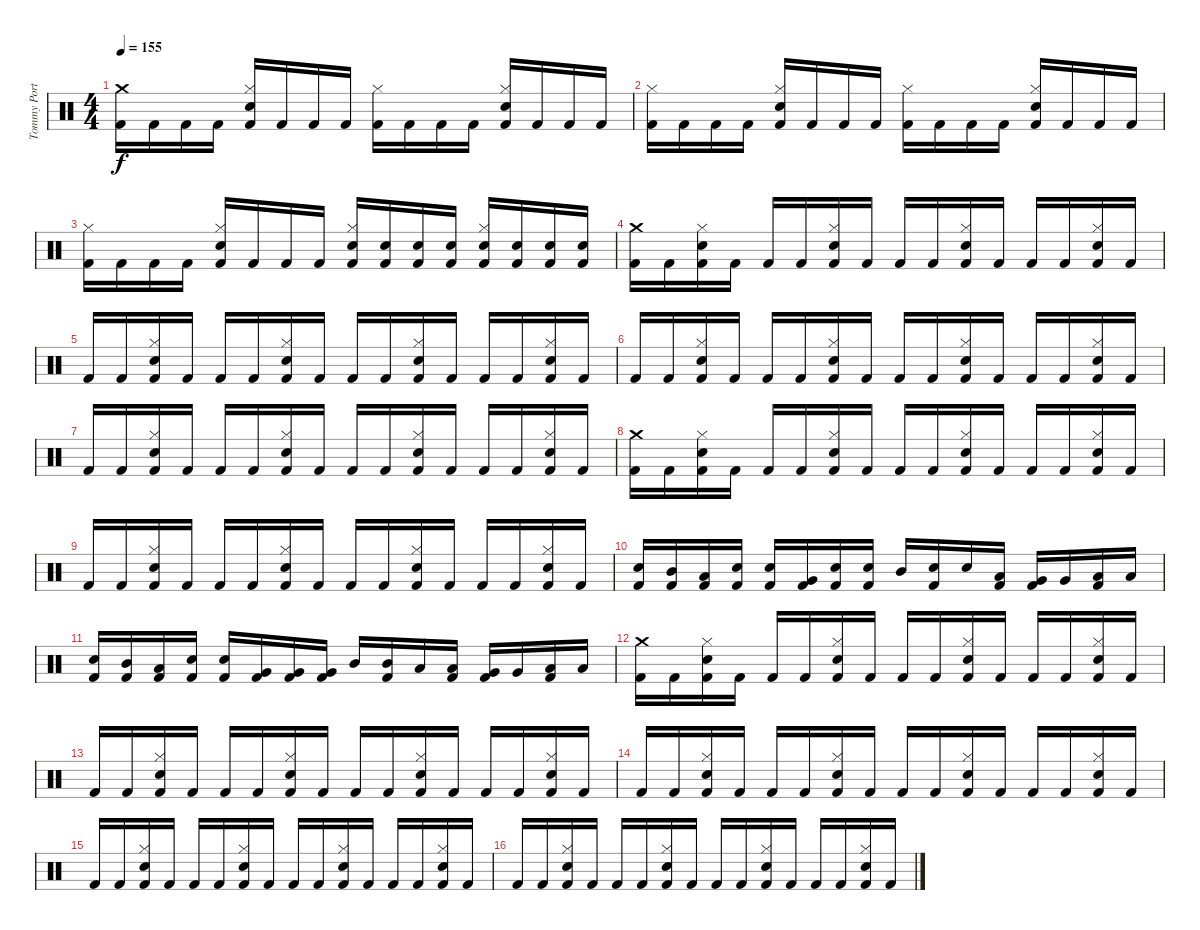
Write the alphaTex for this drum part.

\track ("Tommy Portino" "Tommy Port") {instrument percussion}
\staff {score}
\articulation defaults
\ts (4 4)
\tempo 155
\clef neutral
\ks c
("Crash medium (hit)" "Kick (hit) 2").16{dy f} "Kick (hit) 2".16 "Kick (hit) 2".16 "Kick (hit) 2".16 ("Hi-Hat (closed)" "Electric Snare (hit)" "Kick (hit) 2").16 "Kick (hit) 2".16 "Kick (hit) 2".16 "Kick (hit) 2".16 ("Hi-Hat (closed)" "Kick (hit) 2").16 "Kick (hit) 2".16 "Kick (hit) 2".16 "Kick (hit) 2".16 ("Hi-Hat (closed)" "Electric Snare (hit)" "Kick (hit) 2").16 "Kick (hit) 2".16 "Kick (hit) 2".16 "Kick (hit) 2".16 |
("Hi-Hat (closed)" "Kick (hit) 2").16 "Kick (hit) 2".16 "Kick (hit) 2".16 "Kick (hit) 2".16 ("Hi-Hat (closed)" "Electric Snare (hit)" "Kick (hit) 2").16 "Kick (hit) 2".16 "Kick (hit) 2".16 "Kick (hit) 2".16 ("Hi-Hat (closed)" "Kick (hit) 2").16 "Kick (hit) 2".16 "Kick (hit) 2".16 "Kick (hit) 2".16 ("Hi-Hat (closed)" "Electric Snare (hit)" "Kick (hit) 2").16 "Kick (hit) 2".16 "Kick (hit) 2".16 "Kick (hit) 2".16 |
("Hi-Hat (closed)" "Kick (hit) 2").16 "Kick (hit) 2".16 "Kick (hit) 2".16 "Kick (hit) 2".16 ("Hi-Hat (closed)" "Electric Snare (hit)" "Kick (hit) 2").16 "Kick (hit) 2".16 "Kick (hit) 2".16 "Kick (hit) 2".16 ("Hi-Hat (closed)" "Electric Snare (hit)" "Kick (hit) 2").16 ("Electric Snare (hit)" "Kick (hit) 2").16 ("Electric Snare (hit)" "Kick (hit) 2").16 ("Electric Snare (hit)" "Kick (hit) 2").16 ("Hi-Hat (closed)" "Electric Snare (hit)" "Kick (hit) 2").16 ("Electric Snare (hit)" "Kick (hit) 2").16 ("Electric Snare (hit)" "Kick (hit) 2").16 ("Electric Snare (hit)" "Kick (hit) 2").16 |
("Crash medium (hit)" "Kick (hit) 2").16 "Kick (hit) 2".16 ("Hi-Hat (closed)" "Electric Snare (hit)" "Kick (hit) 2").16 "Kick (hit) 2".16 "Kick (hit) 2".16 "Kick (hit) 2".16 ("Hi-Hat (closed)" "Electric Snare (hit)" "Kick (hit) 2").16 "Kick (hit) 2".16 "Kick (hit) 2".16 "Kick (hit) 2".16 ("Hi-Hat (closed)" "Electric Snare (hit)" "Kick (hit) 2").16 "Kick (hit) 2".16 "Kick (hit) 2".16 "Kick (hit) 2".16 ("Hi-Hat (closed)" "Electric Snare (hit)" "Kick (hit) 2").16 "Kick (hit) 2".16 |
"Kick (hit) 2".16 "Kick (hit) 2".16 ("Hi-Hat (closed)" "Electric Snare (hit)" "Kick (hit) 2").16 "Kick (hit) 2".16 "Kick (hit) 2".16 "Kick (hit) 2".16 ("Hi-Hat (closed)" "Electric Snare (hit)" "Kick (hit) 2").16 "Kick (hit) 2".16 "Kick (hit) 2".16 "Kick (hit) 2".16 ("Hi-Hat (closed)" "Electric Snare (hit)" "Kick (hit) 2").16 "Kick (hit) 2".16 "Kick (hit) 2".16 "Kick (hit) 2".16 ("Hi-Hat (closed)" "Electric Snare (hit)" "Kick (hit) 2").16 "Kick (hit) 2".16 |
"Kick (hit) 2".16 "Kick (hit) 2".16 ("Hi-Hat (closed)" "Electric Snare (hit)" "Kick (hit) 2").16 "Kick (hit) 2".16 "Kick (hit) 2".16 "Kick (hit) 2".16 ("Hi-Hat (closed)" "Electric Snare (hit)" "Kick (hit) 2").16 "Kick (hit) 2".16 "Kick (hit) 2".16 "Kick (hit) 2".16 ("Hi-Hat (closed)" "Electric Snare (hit)" "Kick (hit) 2").16 "Kick (hit) 2".16 "Kick (hit) 2".16 "Kick (hit) 2".16 ("Hi-Hat (closed)" "Electric Snare (hit)" "Kick (hit) 2").16 "Kick (hit) 2".16 |
"Kick (hit) 2".16 "Kick (hit) 2".16 ("Hi-Hat (closed)" "Electric Snare (hit)" "Kick (hit) 2").16 "Kick (hit) 2".16 "Kick (hit) 2".16 "Kick (hit) 2".16 ("Hi-Hat (closed)" "Electric Snare (hit)" "Kick (hit) 2").16 "Kick (hit) 2".16 "Kick (hit) 2".16 "Kick (hit) 2".16 ("Hi-Hat (closed)" "Electric Snare (hit)" "Kick (hit) 2").16 "Kick (hit) 2".16 "Kick (hit) 2".16 "Kick (hit) 2".16 ("Hi-Hat (closed)" "Electric Snare (hit)" "Kick (hit) 2").16 "Kick (hit) 2".16 |
("Crash medium (hit)" "Kick (hit) 2").16 "Kick (hit) 2".16 ("Hi-Hat (closed)" "Electric Snare (hit)" "Kick (hit) 2").16 "Kick (hit) 2".16 "Kick (hit) 2".16 "Kick (hit) 2".16 ("Hi-Hat (closed)" "Electric Snare (hit)" "Kick (hit) 2").16 "Kick (hit) 2".16 "Kick (hit) 2".16 "Kick (hit) 2".16 ("Hi-Hat (closed)" "Electric Snare (hit)" "Kick (hit) 2").16 "Kick (hit) 2".16 "Kick (hit) 2".16 "Kick (hit) 2".16 ("Hi-Hat (closed)" "Electric Snare (hit)" "Kick (hit) 2").16 "Kick (hit) 2".16 |
"Kick (hit) 2".16 "Kick (hit) 2".16 ("Hi-Hat (closed)" "Electric Snare (hit)" "Kick (hit) 2").16 "Kick (hit) 2".16 "Kick (hit) 2".16 "Kick (hit) 2".16 ("Hi-Hat (closed)" "Electric Snare (hit)" "Kick (hit) 2").16 "Kick (hit) 2".16 "Kick (hit) 2".16 "Kick (hit) 2".16 ("Hi-Hat (closed)" "Electric Snare (hit)" "Kick (hit) 2").16 "Kick (hit) 2".16 "Kick (hit) 2".16 "Kick (hit) 2".16 ("Hi-Hat (closed)" "Electric Snare (hit)" "Kick (hit) 2").16 "Kick (hit) 2".16 |
("Electric Snare (hit)" "Kick (hit) 2").16 ("Mid Tom (hit)" "Kick (hit) 2").16 ("Low Tom (hit)" "Kick (hit) 2").16 ("Electric Snare (hit)" "Kick (hit) 2").16 ("Electric Snare (hit)" "Kick (hit) 2").16 ("Very Low Tom (hit)" "Kick (hit) 2").16 ("Electric Snare (hit)" "Kick (hit) 2").16 ("Electric Snare (hit)" "Kick (hit) 2").16 "Mid Tom (hit)".16 ("Electric Snare (hit)" "Kick (hit) 2").16 "Electric Snare (hit)".16 ("Low Tom (hit)" "Kick (hit) 2").16 ("Very Low Tom (hit)" "Kick (hit) 2").16 "Very Low Tom (hit)".16 ("Low Floor Tom (hit)" "Kick (hit) 2").16 "Low Floor Tom (hit)".16 |
("Electric Snare (hit)" "Kick (hit) 2").16 ("Mid Tom (hit)" "Kick (hit) 2").16 ("Low Tom (hit)" "Kick (hit) 2").16 ("Electric Snare (hit)" "Kick (hit) 2").16 ("Electric Snare (hit)" "Kick (hit) 2").16 ("Very Low Tom (hit)" "Kick (hit) 2").16 ("Very Low Tom (hit)" "Kick (hit) 2").16 ("Very Low Tom (hit)" "Kick (hit) 2").16 "Mid Tom (hit)".16 ("Mid Tom (hit)" "Kick (hit) 2").16 "Low Tom (hit)".16 ("Low Tom (hit)" "Kick (hit) 2").16 ("Very Low Tom (hit)" "Kick (hit) 2").16 "Very Low Tom (hit)".16 ("Low Floor Tom (hit)" "Kick (hit) 2").16 "Low Floor Tom (hit)".16 |
("Crash medium (hit)" "Kick (hit) 2").16 "Kick (hit) 2".16 ("Hi-Hat (closed)" "Electric Snare (hit)" "Kick (hit) 2").16 "Kick (hit) 2".16 "Kick (hit) 2".16 "Kick (hit) 2".16 ("Hi-Hat (closed)" "Electric Snare (hit)" "Kick (hit) 2").16 "Kick (hit) 2".16 "Kick (hit) 2".16 "Kick (hit) 2".16 ("Hi-Hat (closed)" "Electric Snare (hit)" "Kick (hit) 2").16 "Kick (hit) 2".16 "Kick (hit) 2".16 "Kick (hit) 2".16 ("Hi-Hat (closed)" "Electric Snare (hit)" "Kick (hit) 2").16 "Kick (hit) 2".16 |
"Kick (hit) 2".16 "Kick (hit) 2".16 ("Hi-Hat (closed)" "Electric Snare (hit)" "Kick (hit) 2").16 "Kick (hit) 2".16 "Kick (hit) 2".16 "Kick (hit) 2".16 ("Hi-Hat (closed)" "Electric Snare (hit)" "Kick (hit) 2").16 "Kick (hit) 2".16 "Kick (hit) 2".16 "Kick (hit) 2".16 ("Hi-Hat (closed)" "Electric Snare (hit)" "Kick (hit) 2").16 "Kick (hit) 2".16 "Kick (hit) 2".16 "Kick (hit) 2".16 ("Hi-Hat (closed)" "Electric Snare (hit)" "Kick (hit) 2").16 "Kick (hit) 2".16 |
"Kick (hit) 2".16 "Kick (hit) 2".16 ("Hi-Hat (closed)" "Electric Snare (hit)" "Kick (hit) 2").16 "Kick (hit) 2".16 "Kick (hit) 2".16 "Kick (hit) 2".16 ("Hi-Hat (closed)" "Electric Snare (hit)" "Kick (hit) 2").16 "Kick (hit) 2".16 "Kick (hit) 2".16 "Kick (hit) 2".16 ("Hi-Hat (closed)" "Electric Snare (hit)" "Kick (hit) 2").16 "Kick (hit) 2".16 "Kick (hit) 2".16 "Kick (hit) 2".16 ("Hi-Hat (closed)" "Electric Snare (hit)" "Kick (hit) 2").16 "Kick (hit) 2".16 |
"Kick (hit) 2".16 "Kick (hit) 2".16 ("Hi-Hat (closed)" "Electric Snare (hit)" "Kick (hit) 2").16 "Kick (hit) 2".16 "Kick (hit) 2".16 "Kick (hit) 2".16 ("Hi-Hat (closed)" "Electric Snare (hit)" "Kick (hit) 2").16 "Kick (hit) 2".16 "Kick (hit) 2".16 "Kick (hit) 2".16 ("Hi-Hat (closed)" "Electric Snare (hit)" "Kick (hit) 2").16 "Kick (hit) 2".16 "Kick (hit) 2".16 "Kick (hit) 2".16 ("Hi-Hat (closed)" "Electric Snare (hit)" "Kick (hit) 2").16 "Kick (hit) 2".16 |
"Kick (hit) 2".16 "Kick (hit) 2".16 ("Hi-Hat (closed)" "Electric Snare (hit)" "Kick (hit) 2").16 "Kick (hit) 2".16 "Kick (hit) 2".16 "Kick (hit) 2".16 ("Hi-Hat (closed)" "Electric Snare (hit)" "Kick (hit) 2").16 "Kick (hit) 2".16 "Kick (hit) 2".16 "Kick (hit) 2".16 ("Hi-Hat (closed)" "Electric Snare (hit)" "Kick (hit) 2").16 "Kick (hit) 2".16 "Kick (hit) 2".16 "Kick (hit) 2".16 ("Hi-Hat (closed)" "Electric Snare (hit)" "Kick (hit) 2").16 "Kick (hit) 2".16
